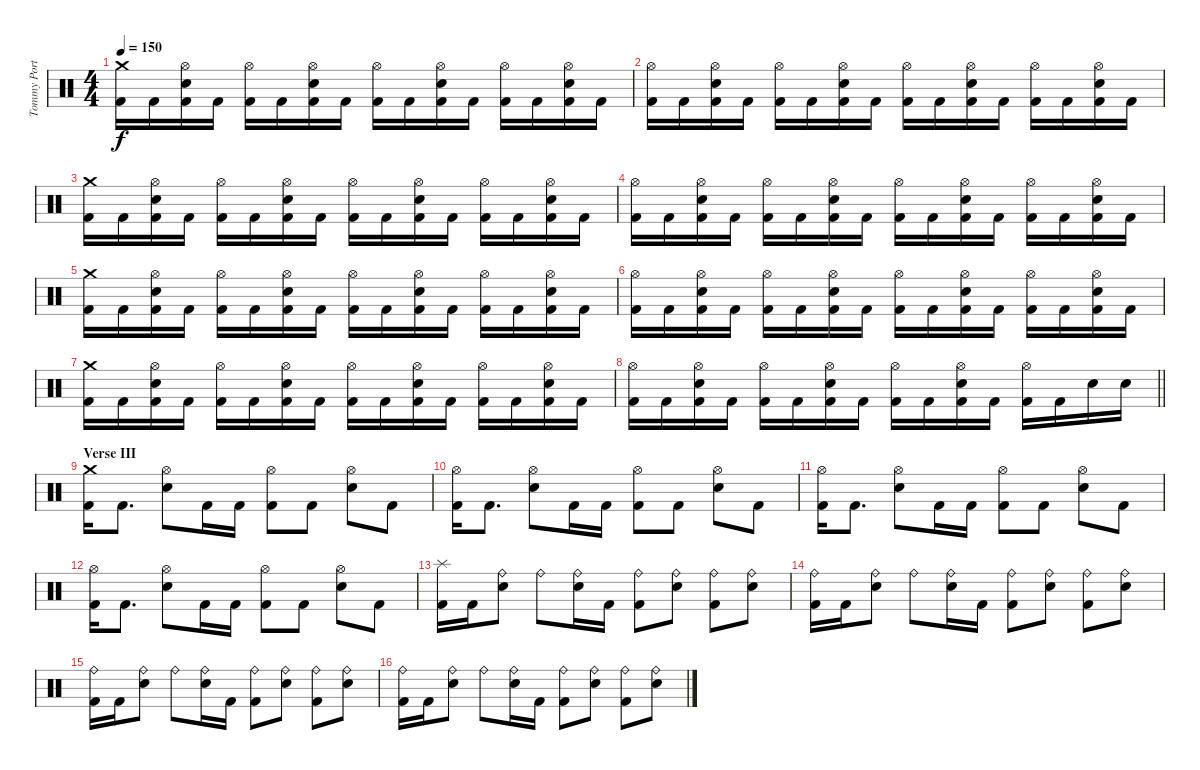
\track ("Tommy Portimo" "Tommy Port") {instrument percussion}
\staff {score}
\articulation defaults
\ts (4 4)
\tempo 150
\clef neutral
\ks c
("Crash medium (hit)" "Kick (hit) 2").16{dy f} "Kick (hit) 2".16 ("Hi-Hat (open)" "Electric Snare (hit)" "Kick (hit) 2").16 "Kick (hit) 2".16 ("Hi-Hat (open)" "Kick (hit) 2").16 "Kick (hit) 2".16 ("Hi-Hat (open)" "Electric Snare (hit)" "Kick (hit) 2").16 "Kick (hit) 2".16 ("Hi-Hat (open)" "Kick (hit) 2").16 "Kick (hit) 2".16 ("Hi-Hat (open)" "Electric Snare (hit)" "Kick (hit) 2").16 "Kick (hit) 2".16 ("Hi-Hat (open)" "Kick (hit) 2").16 "Kick (hit) 2".16 ("Hi-Hat (open)" "Electric Snare (hit)" "Kick (hit) 2").16 "Kick (hit) 2".16 |
("Hi-Hat (open)" "Kick (hit) 2").16 "Kick (hit) 2".16 ("Hi-Hat (open)" "Electric Snare (hit)" "Kick (hit) 2").16 "Kick (hit) 2".16 ("Hi-Hat (open)" "Kick (hit) 2").16 "Kick (hit) 2".16 ("Hi-Hat (open)" "Electric Snare (hit)" "Kick (hit) 2").16 "Kick (hit) 2".16 ("Hi-Hat (open)" "Kick (hit) 2").16 "Kick (hit) 2".16 ("Hi-Hat (open)" "Electric Snare (hit)" "Kick (hit) 2").16 "Kick (hit) 2".16 ("Hi-Hat (open)" "Kick (hit) 2").16 "Kick (hit) 2".16 ("Hi-Hat (open)" "Electric Snare (hit)" "Kick (hit) 2").16 "Kick (hit) 2".16 |
("Crash medium (hit)" "Kick (hit) 2").16 "Kick (hit) 2".16 ("Hi-Hat (open)" "Electric Snare (hit)" "Kick (hit) 2").16 "Kick (hit) 2".16 ("Hi-Hat (open)" "Kick (hit) 2").16 "Kick (hit) 2".16 ("Hi-Hat (open)" "Electric Snare (hit)" "Kick (hit) 2").16 "Kick (hit) 2".16 ("Hi-Hat (open)" "Kick (hit) 2").16 "Kick (hit) 2".16 ("Hi-Hat (open)" "Electric Snare (hit)" "Kick (hit) 2").16 "Kick (hit) 2".16 ("Hi-Hat (open)" "Kick (hit) 2").16 "Kick (hit) 2".16 ("Hi-Hat (open)" "Electric Snare (hit)" "Kick (hit) 2").16 "Kick (hit) 2".16 |
("Hi-Hat (open)" "Kick (hit) 2").16 "Kick (hit) 2".16 ("Hi-Hat (open)" "Electric Snare (hit)" "Kick (hit) 2").16 "Kick (hit) 2".16 ("Hi-Hat (open)" "Kick (hit) 2").16 "Kick (hit) 2".16 ("Hi-Hat (open)" "Electric Snare (hit)" "Kick (hit) 2").16 "Kick (hit) 2".16 ("Hi-Hat (open)" "Kick (hit) 2").16 "Kick (hit) 2".16 ("Hi-Hat (open)" "Electric Snare (hit)" "Kick (hit) 2").16 "Kick (hit) 2".16 ("Hi-Hat (open)" "Kick (hit) 2").16 "Kick (hit) 2".16 ("Hi-Hat (open)" "Electric Snare (hit)" "Kick (hit) 2").16 "Kick (hit) 2".16 |
("Crash medium (hit)" "Kick (hit) 2").16 "Kick (hit) 2".16 ("Hi-Hat (open)" "Electric Snare (hit)" "Kick (hit) 2").16 "Kick (hit) 2".16 ("Hi-Hat (open)" "Kick (hit) 2").16 "Kick (hit) 2".16 ("Hi-Hat (open)" "Electric Snare (hit)" "Kick (hit) 2").16 "Kick (hit) 2".16 ("Hi-Hat (open)" "Kick (hit) 2").16 "Kick (hit) 2".16 ("Hi-Hat (open)" "Electric Snare (hit)" "Kick (hit) 2").16 "Kick (hit) 2".16 ("Hi-Hat (open)" "Kick (hit) 2").16 "Kick (hit) 2".16 ("Hi-Hat (open)" "Electric Snare (hit)" "Kick (hit) 2").16 "Kick (hit) 2".16 |
("Hi-Hat (open)" "Kick (hit) 2").16 "Kick (hit) 2".16 ("Hi-Hat (open)" "Electric Snare (hit)" "Kick (hit) 2").16 "Kick (hit) 2".16 ("Hi-Hat (open)" "Kick (hit) 2").16 "Kick (hit) 2".16 ("Hi-Hat (open)" "Electric Snare (hit)" "Kick (hit) 2").16 "Kick (hit) 2".16 ("Hi-Hat (open)" "Kick (hit) 2").16 "Kick (hit) 2".16 ("Hi-Hat (open)" "Electric Snare (hit)" "Kick (hit) 2").16 "Kick (hit) 2".16 ("Hi-Hat (open)" "Kick (hit) 2").16 "Kick (hit) 2".16 ("Hi-Hat (open)" "Electric Snare (hit)" "Kick (hit) 2").16 "Kick (hit) 2".16 |
("Crash medium (hit)" "Kick (hit) 2").16 "Kick (hit) 2".16 ("Hi-Hat (open)" "Electric Snare (hit)" "Kick (hit) 2").16 "Kick (hit) 2".16 ("Hi-Hat (open)" "Kick (hit) 2").16 "Kick (hit) 2".16 ("Hi-Hat (open)" "Electric Snare (hit)" "Kick (hit) 2").16 "Kick (hit) 2".16 ("Hi-Hat (open)" "Kick (hit) 2").16 "Kick (hit) 2".16 ("Hi-Hat (open)" "Electric Snare (hit)" "Kick (hit) 2").16 "Kick (hit) 2".16 ("Hi-Hat (open)" "Kick (hit) 2").16 "Kick (hit) 2".16 ("Hi-Hat (open)" "Electric Snare (hit)" "Kick (hit) 2").16 "Kick (hit) 2".16 |
\barLineRight lightlight
("Hi-Hat (open)" "Kick (hit) 2").16 "Kick (hit) 2".16 ("Hi-Hat (open)" "Electric Snare (hit)" "Kick (hit) 2").16 "Kick (hit) 2".16 ("Hi-Hat (open)" "Kick (hit) 2").16 "Kick (hit) 2".16 ("Hi-Hat (open)" "Electric Snare (hit)" "Kick (hit) 2").16 "Kick (hit) 2".16 ("Hi-Hat (open)" "Kick (hit) 2").16 "Kick (hit) 2".16 ("Hi-Hat (open)" "Electric Snare (hit)" "Kick (hit) 2").16 "Kick (hit) 2".16 ("Hi-Hat (open)" "Kick (hit) 2").16 "Kick (hit) 2".16 "Electric Snare (hit)".16 "Electric Snare (hit)".16 |
\section ("" "Verse III")
("Crash medium (hit)" "Kick (hit) 2").16 "Kick (hit) 2".8{d} ("Hi-Hat (open)" "Electric Snare (hit)").8 "Kick (hit) 2".16 "Kick (hit) 2".16 ("Hi-Hat (open)" "Kick (hit) 2").8 "Kick (hit) 2".8 ("Hi-Hat (open)" "Electric Snare (hit)").8 "Kick (hit) 2".8 |
("Hi-Hat (open)" "Kick (hit) 2").16 "Kick (hit) 2".8{d} ("Hi-Hat (open)" "Electric Snare (hit)").8 "Kick (hit) 2".16 "Kick (hit) 2".16 ("Hi-Hat (open)" "Kick (hit) 2").8 "Kick (hit) 2".8 ("Hi-Hat (open)" "Electric Snare (hit)").8 "Kick (hit) 2".8 |
("Hi-Hat (open)" "Kick (hit) 2").16 "Kick (hit) 2".8{d} ("Hi-Hat (open)" "Electric Snare (hit)").8 "Kick (hit) 2".16 "Kick (hit) 2".16 ("Hi-Hat (open)" "Kick (hit) 2").8 "Kick (hit) 2".8 ("Hi-Hat (open)" "Electric Snare (hit)").8 "Kick (hit) 2".8 |
("Hi-Hat (open)" "Kick (hit) 2").16 "Kick (hit) 2".8{d} ("Hi-Hat (open)" "Electric Snare (hit)").8 "Kick (hit) 2".16 "Kick (hit) 2".16 ("Hi-Hat (open)" "Kick (hit) 2").8 "Kick (hit) 2".8 ("Hi-Hat (open)" "Electric Snare (hit)").8 "Kick (hit) 2".8 |
("Splash (hit)" "Kick (hit) 2").16 "Kick (hit) 2".16 ("Ride (bell)" "Electric Snare (hit)").8 "Ride (bell)".8 ("Ride (bell)" "Electric Snare (hit)").16 "Kick (hit) 2".16 ("Ride (bell)" "Kick (hit) 2").8 ("Ride (bell)" "Electric Snare (hit)").8 ("Ride (bell)" "Kick (hit) 2").8 ("Ride (bell)" "Electric Snare (hit)").8 |
("Ride (bell)" "Kick (hit) 2").16 "Kick (hit) 2".16 ("Ride (bell)" "Electric Snare (hit)").8 "Ride (bell)".8 ("Ride (bell)" "Electric Snare (hit)").16 "Kick (hit) 2".16 ("Ride (bell)" "Kick (hit) 2").8 ("Ride (bell)" "Electric Snare (hit)").8 ("Ride (bell)" "Kick (hit) 2").8 ("Ride (bell)" "Electric Snare (hit)").8 |
("Ride (bell)" "Kick (hit) 2").16 "Kick (hit) 2".16 ("Ride (bell)" "Electric Snare (hit)").8 "Ride (bell)".8 ("Ride (bell)" "Electric Snare (hit)").16 "Kick (hit) 2".16 ("Ride (bell)" "Kick (hit) 2").8 ("Ride (bell)" "Electric Snare (hit)").8 ("Ride (bell)" "Kick (hit) 2").8 ("Ride (bell)" "Electric Snare (hit)").8 |
("Ride (bell)" "Kick (hit) 2").16 "Kick (hit) 2".16 ("Ride (bell)" "Electric Snare (hit)").8 "Ride (bell)".8 ("Ride (bell)" "Electric Snare (hit)").16 "Kick (hit) 2".16 ("Ride (bell)" "Kick (hit) 2").8 ("Ride (bell)" "Electric Snare (hit)").8 ("Ride (bell)" "Kick (hit) 2").8 ("Ride (bell)" "Electric Snare (hit)").8
